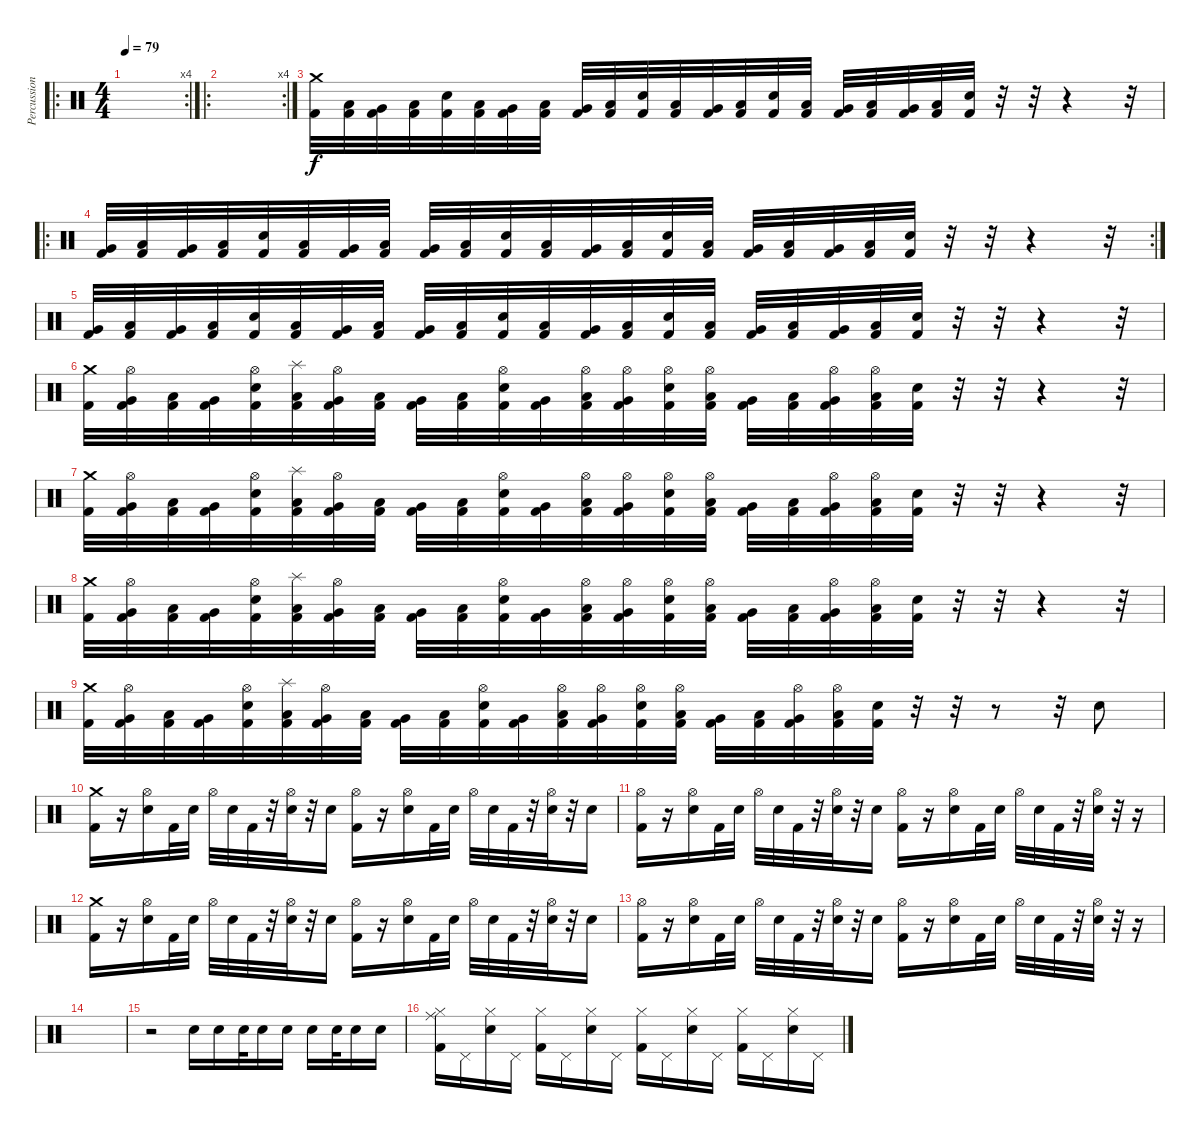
\track ("Percussion" "Percussion") {instrument percussion}
\staff {score}
\articulation defaults
\ro
\rc 4
\ts (4 4)
\tempo 79
\clef neutral
\ks c
|
\ro
\rc 4
|
("Crash medium (hit)" "Kick (hit) 2").32 ("Low Tom (hit)" "Kick (hit) 2").32 ("Very Low Tom (hit)" "Kick (hit) 2").32 ("Low Tom (hit)" "Kick (hit) 2").32 ("Electric Snare (hit)" "Kick (hit) 2").32 ("Low Tom (hit)" "Kick (hit) 2").32 ("Very Low Tom (hit)" "Kick (hit) 2").32 ("Low Tom (hit)" "Kick (hit) 2").32 ("Very Low Tom (hit)" "Kick (hit) 2").32 ("Low Tom (hit)" "Kick (hit) 2").32 ("Electric Snare (hit)" "Kick (hit) 2").32 ("Low Tom (hit)" "Kick (hit) 2").32 ("Very Low Tom (hit)" "Kick (hit) 2").32 ("Low Tom (hit)" "Kick (hit) 2").32 ("Electric Snare (hit)" "Kick (hit) 2").32 ("Low Tom (hit)" "Kick (hit) 2").32 ("Very Low Tom (hit)" "Kick (hit) 2").32 ("Low Tom (hit)" "Kick (hit) 2").32 ("Very Low Tom (hit)" "Kick (hit) 2").32 ("Low Tom (hit)" "Kick (hit) 2").32 ("Electric Snare (hit)" "Kick (hit) 2").32 r.32 r.32 r.4 r.32 |
\ro
\rc 2
("Very Low Tom (hit)" "Kick (hit) 2").32 ("Low Tom (hit)" "Kick (hit) 2").32 ("Very Low Tom (hit)" "Kick (hit) 2").32 ("Low Tom (hit)" "Kick (hit) 2").32 ("Electric Snare (hit)" "Kick (hit) 2").32 ("Low Tom (hit)" "Kick (hit) 2").32 ("Very Low Tom (hit)" "Kick (hit) 2").32 ("Low Tom (hit)" "Kick (hit) 2").32 ("Very Low Tom (hit)" "Kick (hit) 2").32 ("Low Tom (hit)" "Kick (hit) 2").32 ("Electric Snare (hit)" "Kick (hit) 2").32 ("Low Tom (hit)" "Kick (hit) 2").32 ("Very Low Tom (hit)" "Kick (hit) 2").32 ("Low Tom (hit)" "Kick (hit) 2").32 ("Electric Snare (hit)" "Kick (hit) 2").32 ("Low Tom (hit)" "Kick (hit) 2").32 ("Very Low Tom (hit)" "Kick (hit) 2").32 ("Low Tom (hit)" "Kick (hit) 2").32 ("Very Low Tom (hit)" "Kick (hit) 2").32 ("Low Tom (hit)" "Kick (hit) 2").32 ("Electric Snare (hit)" "Kick (hit) 2").32 r.32 r.32 r.4 r.32 |
("Very Low Tom (hit)" "Kick (hit) 2").32 ("Low Tom (hit)" "Kick (hit) 2").32 ("Very Low Tom (hit)" "Kick (hit) 2").32 ("Low Tom (hit)" "Kick (hit) 2").32 ("Electric Snare (hit)" "Kick (hit) 2").32 ("Low Tom (hit)" "Kick (hit) 2").32 ("Very Low Tom (hit)" "Kick (hit) 2").32 ("Low Tom (hit)" "Kick (hit) 2").32 ("Very Low Tom (hit)" "Kick (hit) 2").32 ("Low Tom (hit)" "Kick (hit) 2").32 ("Electric Snare (hit)" "Kick (hit) 2").32 ("Low Tom (hit)" "Kick (hit) 2").32 ("Very Low Tom (hit)" "Kick (hit) 2").32 ("Low Tom (hit)" "Kick (hit) 2").32 ("Electric Snare (hit)" "Kick (hit) 2").32 ("Low Tom (hit)" "Kick (hit) 2").32 ("Very Low Tom (hit)" "Kick (hit) 2").32 ("Low Tom (hit)" "Kick (hit) 2").32 ("Very Low Tom (hit)" "Kick (hit) 2").32 ("Low Tom (hit)" "Kick (hit) 2").32 ("Electric Snare (hit)" "Kick (hit) 2").32 r.32 r.32 r.4 r.32 |
("Crash medium (hit)" "Kick (hit) 2").32 ("Hi-Hat (open)" "Very Low Tom (hit)" "Kick (hit) 2").32 ("Low Tom (hit)" "Kick (hit) 2").32 ("Very Low Tom (hit)" "Kick (hit) 2").32 ("Hi-Hat (open)" "Electric Snare (hit)" "Kick (hit) 2").32 ("Splash (hit)" "Low Tom (hit)" "Kick (hit) 2").32 ("Hi-Hat (open)" "Very Low Tom (hit)" "Kick (hit) 2").32 ("Low Tom (hit)" "Kick (hit) 2").32 ("Very Low Tom (hit)" "Kick (hit) 2").32 ("Low Tom (hit)" "Kick (hit) 2").32 ("Hi-Hat (open)" "Electric Snare (hit)" "Kick (hit) 2").32 ("Very Low Tom (hit)" "Kick (hit) 2").32 ("Hi-Hat (open)" "Low Tom (hit)" "Kick (hit) 2").32 ("Hi-Hat (open)" "Very Low Tom (hit)" "Kick (hit) 2").32 ("Hi-Hat (open)" "Electric Snare (hit)" "Kick (hit) 2").32 ("Hi-Hat (open)" "Low Tom (hit)" "Kick (hit) 2").32 ("Very Low Tom (hit)" "Kick (hit) 2").32 ("Low Tom (hit)" "Kick (hit) 2").32 ("Hi-Hat (open)" "Very Low Tom (hit)" "Kick (hit) 2").32 ("Hi-Hat (open)" "Low Tom (hit)" "Kick (hit) 2").32 ("Electric Snare (hit)" "Kick (hit) 2").32 r.32 r.32 r.4 r.32 |
("Crash medium (hit)" "Kick (hit) 2").32 ("Hi-Hat (open)" "Very Low Tom (hit)" "Kick (hit) 2").32 ("Low Tom (hit)" "Kick (hit) 2").32 ("Very Low Tom (hit)" "Kick (hit) 2").32 ("Hi-Hat (open)" "Electric Snare (hit)" "Kick (hit) 2").32 ("Splash (hit)" "Low Tom (hit)" "Kick (hit) 2").32 ("Hi-Hat (open)" "Very Low Tom (hit)" "Kick (hit) 2").32 ("Low Tom (hit)" "Kick (hit) 2").32 ("Very Low Tom (hit)" "Kick (hit) 2").32 ("Low Tom (hit)" "Kick (hit) 2").32 ("Hi-Hat (open)" "Electric Snare (hit)" "Kick (hit) 2").32 ("Very Low Tom (hit)" "Kick (hit) 2").32 ("Hi-Hat (open)" "Low Tom (hit)" "Kick (hit) 2").32 ("Hi-Hat (open)" "Very Low Tom (hit)" "Kick (hit) 2").32 ("Hi-Hat (open)" "Electric Snare (hit)" "Kick (hit) 2").32 ("Hi-Hat (open)" "Low Tom (hit)" "Kick (hit) 2").32 ("Very Low Tom (hit)" "Kick (hit) 2").32 ("Low Tom (hit)" "Kick (hit) 2").32 ("Hi-Hat (open)" "Very Low Tom (hit)" "Kick (hit) 2").32 ("Hi-Hat (open)" "Low Tom (hit)" "Kick (hit) 2").32 ("Electric Snare (hit)" "Kick (hit) 2").32 r.32 r.32 r.4 r.32 |
("Crash medium (hit)" "Kick (hit) 2").32 ("Hi-Hat (open)" "Very Low Tom (hit)" "Kick (hit) 2").32 ("Low Tom (hit)" "Kick (hit) 2").32 ("Very Low Tom (hit)" "Kick (hit) 2").32 ("Hi-Hat (open)" "Electric Snare (hit)" "Kick (hit) 2").32 ("Splash (hit)" "Low Tom (hit)" "Kick (hit) 2").32 ("Hi-Hat (open)" "Very Low Tom (hit)" "Kick (hit) 2").32 ("Low Tom (hit)" "Kick (hit) 2").32 ("Very Low Tom (hit)" "Kick (hit) 2").32 ("Low Tom (hit)" "Kick (hit) 2").32 ("Hi-Hat (open)" "Electric Snare (hit)" "Kick (hit) 2").32 ("Very Low Tom (hit)" "Kick (hit) 2").32 ("Hi-Hat (open)" "Low Tom (hit)" "Kick (hit) 2").32 ("Hi-Hat (open)" "Very Low Tom (hit)" "Kick (hit) 2").32 ("Hi-Hat (open)" "Electric Snare (hit)" "Kick (hit) 2").32 ("Hi-Hat (open)" "Low Tom (hit)" "Kick (hit) 2").32 ("Very Low Tom (hit)" "Kick (hit) 2").32 ("Low Tom (hit)" "Kick (hit) 2").32 ("Hi-Hat (open)" "Very Low Tom (hit)" "Kick (hit) 2").32 ("Hi-Hat (open)" "Low Tom (hit)" "Kick (hit) 2").32 ("Electric Snare (hit)" "Kick (hit) 2").32 r.32 r.32 r.4 r.32 |
("Crash medium (hit)" "Kick (hit) 2").32 ("Hi-Hat (open)" "Very Low Tom (hit)" "Kick (hit) 2").32 ("Low Tom (hit)" "Kick (hit) 2").32 ("Very Low Tom (hit)" "Kick (hit) 2").32 ("Hi-Hat (open)" "Electric Snare (hit)" "Kick (hit) 2").32 ("Splash (hit)" "Low Tom (hit)" "Kick (hit) 2").32 ("Hi-Hat (open)" "Very Low Tom (hit)" "Kick (hit) 2").32 ("Low Tom (hit)" "Kick (hit) 2").32 ("Very Low Tom (hit)" "Kick (hit) 2").32 ("Low Tom (hit)" "Kick (hit) 2").32 ("Hi-Hat (open)" "Electric Snare (hit)" "Kick (hit) 2").32 ("Very Low Tom (hit)" "Kick (hit) 2").32 ("Hi-Hat (open)" "Low Tom (hit)" "Kick (hit) 2").32 ("Hi-Hat (open)" "Very Low Tom (hit)" "Kick (hit) 2").32 ("Hi-Hat (open)" "Electric Snare (hit)" "Kick (hit) 2").32 ("Hi-Hat (open)" "Low Tom (hit)" "Kick (hit) 2").32 ("Very Low Tom (hit)" "Kick (hit) 2").32 ("Low Tom (hit)" "Kick (hit) 2").32 ("Hi-Hat (open)" "Very Low Tom (hit)" "Kick (hit) 2").32 ("Hi-Hat (open)" "Low Tom (hit)" "Kick (hit) 2").32 ("Electric Snare (hit)" "Kick (hit) 2").32 r.32 r.32 r.8 r.32 "Electric Snare (hit)".8 |
("Crash medium (hit)" "Kick (hit) 2").16 r.16 ("Hi-Hat (open)" "Electric Snare (hit)").16 "Kick (hit) 2".32 "Electric Snare (hit)".32 "Hi-Hat (open)".32 "Electric Snare (hit)".32 "Kick (hit) 2".32 r.32 ("Hi-Hat (open)" "Electric Snare (hit)").32 r.32 "Electric Snare (hit)".16 ("Hi-Hat (open)" "Kick (hit) 2").16 r.16 ("Hi-Hat (open)" "Electric Snare (hit)").16 "Kick (hit) 2".32 "Electric Snare (hit)".32 "Hi-Hat (open)".32 "Electric Snare (hit)".32 "Kick (hit) 2".32 r.32 ("Hi-Hat (open)" "Electric Snare (hit)").32 r.32 "Electric Snare (hit)".16 |
("Hi-Hat (open)" "Kick (hit) 2").16 r.16 ("Hi-Hat (open)" "Electric Snare (hit)").16 "Kick (hit) 2".32 "Electric Snare (hit)".32 "Hi-Hat (open)".32 "Electric Snare (hit)".32 "Kick (hit) 2".32 r.32 ("Hi-Hat (open)" "Electric Snare (hit)").32 r.32 "Electric Snare (hit)".16 ("Hi-Hat (open)" "Kick (hit) 2").16 r.16 ("Hi-Hat (open)" "Electric Snare (hit)").16 "Kick (hit) 2".32 "Electric Snare (hit)".32 "Hi-Hat (open)".32 "Electric Snare (hit)".32 "Kick (hit) 2".32 r.32 ("Hi-Hat (open)" "Electric Snare (hit)").32 r.32 r.16 |
("Crash medium (hit)" "Kick (hit) 2").16 r.16 ("Hi-Hat (open)" "Electric Snare (hit)").16 "Kick (hit) 2".32 "Electric Snare (hit)".32 "Hi-Hat (open)".32 "Electric Snare (hit)".32 "Kick (hit) 2".32 r.32 ("Hi-Hat (open)" "Electric Snare (hit)").32 r.32 "Electric Snare (hit)".16 ("Hi-Hat (open)" "Kick (hit) 2").16 r.16 ("Hi-Hat (open)" "Electric Snare (hit)").16 "Kick (hit) 2".32 "Electric Snare (hit)".32 "Hi-Hat (open)".32 "Electric Snare (hit)".32 "Kick (hit) 2".32 r.32 ("Hi-Hat (open)" "Electric Snare (hit)").32 r.32 "Electric Snare (hit)".16 |
("Hi-Hat (open)" "Kick (hit) 2").16 r.16 ("Hi-Hat (open)" "Electric Snare (hit)").16 "Kick (hit) 2".32 "Electric Snare (hit)".32 "Hi-Hat (open)".32 "Electric Snare (hit)".32 "Kick (hit) 2".32 r.32 ("Hi-Hat (open)" "Electric Snare (hit)").32 r.32 "Electric Snare (hit)".16 ("Hi-Hat (open)" "Kick (hit) 2").16 r.16 ("Hi-Hat (open)" "Electric Snare (hit)").16 "Kick (hit) 2".32 "Electric Snare (hit)".32 "Hi-Hat (open)".32 "Electric Snare (hit)".32 "Kick (hit) 2".32 r.32 ("Hi-Hat (open)" "Electric Snare (hit)").32 r.32 r.16 |
|
r.2 "Electric Snare (hit)".16 "Electric Snare (hit)".16 "Electric Snare (hit)".32 "Electric Snare (hit)".16 "Electric Snare (hit)".16 "Electric Snare (hit)".16 "Electric Snare (hit)".32 "Electric Snare (hit)".16 "Electric Snare (hit)".16 |
("Hi-Hat (closed)" "Ride (middle)" "Kick (hit) 2").16 "Pedal Hi-Hat (hit)".16 ("Hi-Hat (closed)" "Electric Snare (hit)").16 "Pedal Hi-Hat (hit)".16 ("Hi-Hat (closed)" "Kick (hit) 2").16 "Pedal Hi-Hat (hit)".16 ("Hi-Hat (closed)" "Electric Snare (hit)").16 "Pedal Hi-Hat (hit)".16 ("Hi-Hat (closed)" "Kick (hit) 2").16 "Pedal Hi-Hat (hit)".16 ("Hi-Hat (closed)" "Electric Snare (hit)").16 "Pedal Hi-Hat (hit)".16 ("Hi-Hat (closed)" "Kick (hit) 2").16 "Pedal Hi-Hat (hit)".16 ("Hi-Hat (closed)" "Electric Snare (hit)").16 "Pedal Hi-Hat (hit)".16
